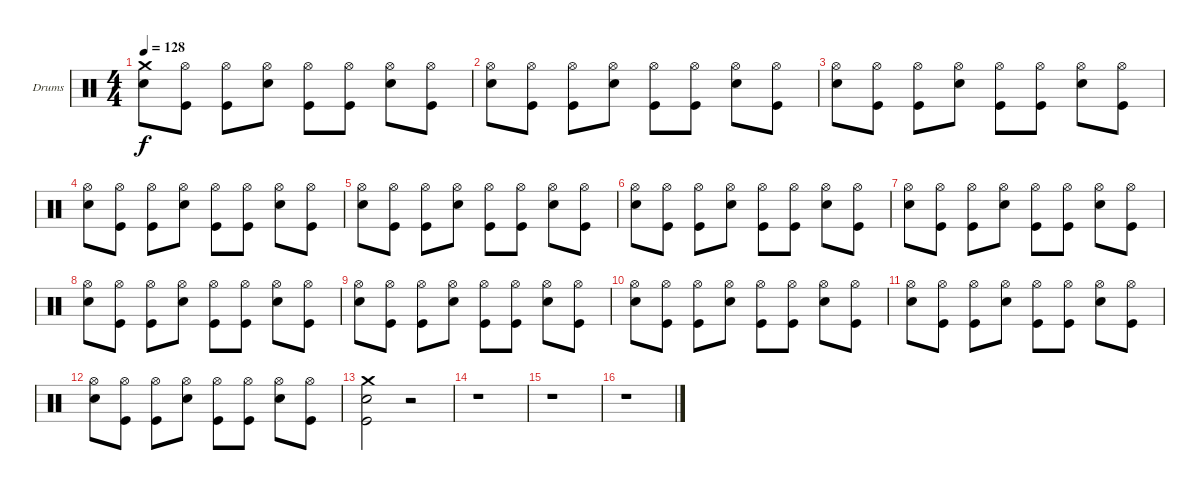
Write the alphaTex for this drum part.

\bracketExtendMode groupsimilarinstruments
\firstSystemTrackNameOrientation horizontal
\otherSystemsTrackNameOrientation horizontal
\track ("Drumkit (Christoph)" "Drums") {instrument percussion}
\staff {score}
\articulation defaults
\ts (4 4)
\tempo 128
\clef neutral
\ks c
("Crash medium (hit)" "Snare (hit) 2").8{dy f} ("Kick (hit)" "Hi-Hat (open)").8 ("Kick (hit)" "Hi-Hat (open)").8 ("Snare (hit) 2" "Hi-Hat (open)").8 ("Kick (hit)" "Hi-Hat (open)").8 ("Kick (hit)" "Hi-Hat (open)").8 ("Snare (hit) 2" "Hi-Hat (open)").8 ("Kick (hit)" "Hi-Hat (open)").8 |
("Snare (hit) 2" "Hi-Hat (open)").8 ("Kick (hit)" "Hi-Hat (open)").8 ("Kick (hit)" "Hi-Hat (open)").8 ("Snare (hit) 2" "Hi-Hat (open)").8 ("Kick (hit)" "Hi-Hat (open)").8 ("Kick (hit)" "Hi-Hat (open)").8 ("Snare (hit) 2" "Hi-Hat (open)").8 ("Kick (hit)" "Hi-Hat (open)").8 |
("Snare (hit) 2" "Hi-Hat (open)").8 ("Kick (hit)" "Hi-Hat (open)").8 ("Kick (hit)" "Hi-Hat (open)").8 ("Snare (hit) 2" "Hi-Hat (open)").8 ("Kick (hit)" "Hi-Hat (open)").8 ("Kick (hit)" "Hi-Hat (open)").8 ("Snare (hit) 2" "Hi-Hat (open)").8 ("Kick (hit)" "Hi-Hat (open)").8 |
("Snare (hit) 2" "Hi-Hat (open)").8 ("Kick (hit)" "Hi-Hat (open)").8 ("Kick (hit)" "Hi-Hat (open)").8 ("Snare (hit) 2" "Hi-Hat (open)").8 ("Kick (hit)" "Hi-Hat (open)").8 ("Kick (hit)" "Hi-Hat (open)").8 ("Snare (hit) 2" "Hi-Hat (open)").8 ("Kick (hit)" "Hi-Hat (open)").8 |
("Snare (hit) 2" "Hi-Hat (open)").8 ("Kick (hit)" "Hi-Hat (open)").8 ("Kick (hit)" "Hi-Hat (open)").8 ("Snare (hit) 2" "Hi-Hat (open)").8 ("Kick (hit)" "Hi-Hat (open)").8 ("Kick (hit)" "Hi-Hat (open)").8 ("Snare (hit) 2" "Hi-Hat (open)").8 ("Kick (hit)" "Hi-Hat (open)").8 |
("Snare (hit) 2" "Hi-Hat (open)").8 ("Kick (hit)" "Hi-Hat (open)").8 ("Kick (hit)" "Hi-Hat (open)").8 ("Snare (hit) 2" "Hi-Hat (open)").8 ("Kick (hit)" "Hi-Hat (open)").8 ("Kick (hit)" "Hi-Hat (open)").8 ("Snare (hit) 2" "Hi-Hat (open)").8 ("Kick (hit)" "Hi-Hat (open)").8 |
("Snare (hit) 2" "Hi-Hat (open)").8 ("Kick (hit)" "Hi-Hat (open)").8 ("Kick (hit)" "Hi-Hat (open)").8 ("Snare (hit) 2" "Hi-Hat (open)").8 ("Kick (hit)" "Hi-Hat (open)").8 ("Kick (hit)" "Hi-Hat (open)").8 ("Snare (hit) 2" "Hi-Hat (open)").8 ("Kick (hit)" "Hi-Hat (open)").8 |
("Snare (hit) 2" "Hi-Hat (open)").8 ("Kick (hit)" "Hi-Hat (open)").8 ("Kick (hit)" "Hi-Hat (open)").8 ("Snare (hit) 2" "Hi-Hat (open)").8 ("Kick (hit)" "Hi-Hat (open)").8 ("Kick (hit)" "Hi-Hat (open)").8 ("Snare (hit) 2" "Hi-Hat (open)").8 ("Kick (hit)" "Hi-Hat (open)").8 |
("Snare (hit) 2" "Hi-Hat (open)").8 ("Kick (hit)" "Hi-Hat (open)").8 ("Kick (hit)" "Hi-Hat (open)").8 ("Snare (hit) 2" "Hi-Hat (open)").8 ("Kick (hit)" "Hi-Hat (open)").8 ("Kick (hit)" "Hi-Hat (open)").8 ("Snare (hit) 2" "Hi-Hat (open)").8 ("Kick (hit)" "Hi-Hat (open)").8 |
("Snare (hit) 2" "Hi-Hat (open)").8 ("Kick (hit)" "Hi-Hat (open)").8 ("Kick (hit)" "Hi-Hat (open)").8 ("Snare (hit) 2" "Hi-Hat (open)").8 ("Kick (hit)" "Hi-Hat (open)").8 ("Kick (hit)" "Hi-Hat (open)").8 ("Snare (hit) 2" "Hi-Hat (open)").8 ("Kick (hit)" "Hi-Hat (open)").8 |
("Snare (hit) 2" "Hi-Hat (open)").8 ("Kick (hit)" "Hi-Hat (open)").8 ("Kick (hit)" "Hi-Hat (open)").8 ("Snare (hit) 2" "Hi-Hat (open)").8 ("Kick (hit)" "Hi-Hat (open)").8 ("Kick (hit)" "Hi-Hat (open)").8 ("Snare (hit) 2" "Hi-Hat (open)").8 ("Kick (hit)" "Hi-Hat (open)").8 |
("Snare (hit) 2" "Hi-Hat (open)").8 ("Kick (hit)" "Hi-Hat (open)").8 ("Kick (hit)" "Hi-Hat (open)").8 ("Snare (hit) 2" "Hi-Hat (open)").8 ("Kick (hit)" "Hi-Hat (open)").8 ("Kick (hit)" "Hi-Hat (open)").8 ("Snare (hit) 2" "Hi-Hat (open)").8 ("Kick (hit)" "Hi-Hat (open)").8 |
("Crash medium (hit)" "Snare (hit) 2" "Kick (hit)").2 r.2 |
r.1 |
r.1 |
r.1
